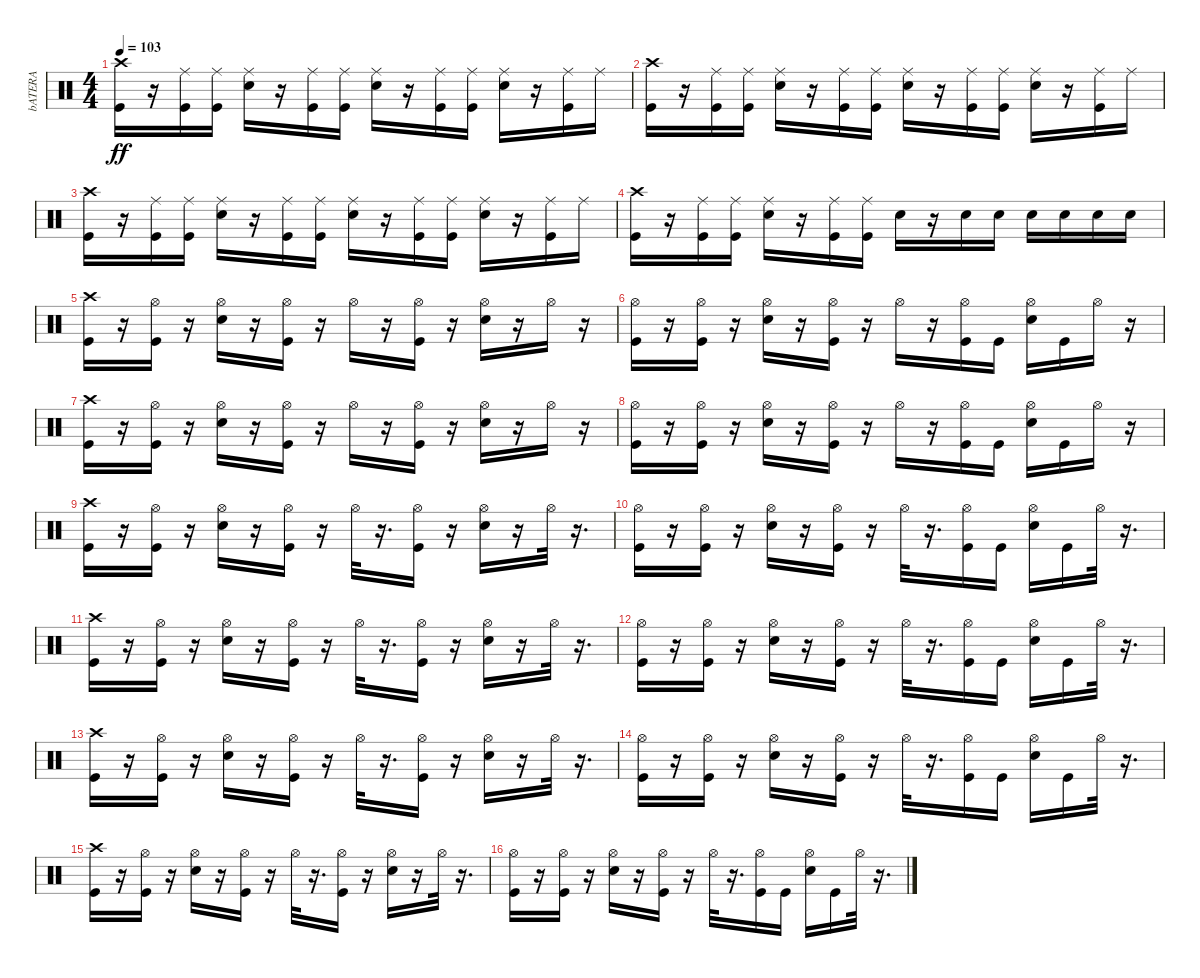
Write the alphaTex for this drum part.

\track ("bATERA" "bATERA") {instrument percussion}
\staff {score}
\articulation defaults
\ts (4 4)
\tempo 103
\clef neutral
\ks c
("Kick (hit)" "Crash high (hit)").16{dy ff} r.16 ("Kick (hit)" "Ride (middle)").16 ("Kick (hit)" "Ride (middle)").16 ("Ride (middle)" "Snare (hit) 2").16 r.16 ("Kick (hit)" "Ride (middle)").16 ("Kick (hit)" "Ride (middle)").16 ("Ride (middle)" "Snare (hit) 2").16 r.16 ("Kick (hit)" "Ride (middle)").16 ("Kick (hit)" "Ride (middle)").16 ("Ride (middle)" "Snare (hit) 2").16 r.16 ("Kick (hit)" "Ride (middle)").16 "Ride (middle)".16 |
("Crash high (hit)" "Kick (hit)").16 r.16 ("Kick (hit)" "Ride (middle)").16 ("Kick (hit)" "Ride (middle)").16 ("Ride (middle)" "Snare (hit) 2").16 r.16 ("Kick (hit)" "Ride (middle)").16 ("Kick (hit)" "Ride (middle)").16 ("Ride (middle)" "Snare (hit) 2").16 r.16 ("Kick (hit)" "Ride (middle)").16 ("Kick (hit)" "Ride (middle)").16 ("Ride (middle)" "Snare (hit) 2").16 r.16 ("Kick (hit)" "Ride (middle)").16 "Ride (middle)".16 |
("Crash high (hit)" "Kick (hit)").16 r.16 ("Kick (hit)" "Ride (middle)").16 ("Kick (hit)" "Ride (middle)").16 ("Ride (middle)" "Snare (hit) 2").16 r.16 ("Kick (hit)" "Ride (middle)").16 ("Kick (hit)" "Ride (middle)").16 ("Ride (middle)" "Snare (hit) 2").16 r.16 ("Kick (hit)" "Ride (middle)").16 ("Kick (hit)" "Ride (middle)").16 ("Ride (middle)" "Snare (hit) 2").16 r.16 ("Kick (hit)" "Ride (middle)").16 "Ride (middle)".16 |
("Crash high (hit)" "Kick (hit)").16 r.16 ("Kick (hit)" "Ride (middle)").16 ("Kick (hit)" "Ride (middle)").16 ("Ride (middle)" "Snare (hit) 2").16 r.16 ("Kick (hit)" "Ride (middle)").16 ("Kick (hit)" "Ride (middle)").16 "Snare (hit) 2".16 r.16 "Snare (hit) 2".16 "Snare (hit) 2".16 "Snare (hit) 2".16 "Snare (hit) 2".16 "Snare (hit) 2".16 "Snare (hit) 2".16 |
("Crash high (hit)" "Kick (hit)").16 r.16 ("Kick (hit)" "Hi-Hat (open)").16 r.16 ("Snare (hit) 2" "Hi-Hat (open)").16 r.16 ("Kick (hit)" "Hi-Hat (open)").16 r.16 "Hi-Hat (open)".16 r.16 ("Kick (hit)" "Hi-Hat (open)").16 r.16 ("Hi-Hat (open)" "Snare (hit) 2").16 r.16 "Hi-Hat (open)".16 r.16 |
("Kick (hit)" "Hi-Hat (open)").16 r.16 ("Kick (hit)" "Hi-Hat (open)").16 r.16 ("Snare (hit) 2" "Hi-Hat (open)").16 r.16 ("Kick (hit)" "Hi-Hat (open)").16 r.16 "Hi-Hat (open)".16 r.16 ("Kick (hit)" "Hi-Hat (open)").16 "Kick (hit)".16 ("Hi-Hat (open)" "Snare (hit) 2").16 "Kick (hit)".16 "Hi-Hat (open)".16 r.16 |
("Kick (hit)" "Crash high (hit)").16 r.16 ("Kick (hit)" "Hi-Hat (open)").16 r.16 ("Snare (hit) 2" "Hi-Hat (open)").16 r.16 ("Kick (hit)" "Hi-Hat (open)").16 r.16 "Hi-Hat (open)".16 r.16 ("Kick (hit)" "Hi-Hat (open)").16 r.16 ("Hi-Hat (open)" "Snare (hit) 2").16 r.16 "Hi-Hat (open)".16 r.16 |
("Kick (hit)" "Hi-Hat (open)").16 r.16 ("Kick (hit)" "Hi-Hat (open)").16 r.16 ("Snare (hit) 2" "Hi-Hat (open)").16 r.16 ("Kick (hit)" "Hi-Hat (open)").16 r.16 "Hi-Hat (open)".16 r.16 ("Kick (hit)" "Hi-Hat (open)").16 "Kick (hit)".16 ("Hi-Hat (open)" "Snare (hit) 2").16 "Kick (hit)".16 "Hi-Hat (open)".16 r.16 |
("Crash high (hit)" "Kick (hit)").16 r.16 ("Kick (hit)" "Hi-Hat (open)").16 r.16 ("Snare (hit) 2" "Hi-Hat (open)").16 r.16 ("Kick (hit)" "Hi-Hat (open)").16 r.16 "Hi-Hat (open)".32 r.16{d} ("Kick (hit)" "Hi-Hat (open)").16 r.16 ("Snare (hit) 2" "Hi-Hat (open)").16 r.16 "Hi-Hat (open)".32 r.16{d} |
("Kick (hit)" "Hi-Hat (open)").16 r.16 ("Kick (hit)" "Hi-Hat (open)").16 r.16 ("Snare (hit) 2" "Hi-Hat (open)").16 r.16 ("Kick (hit)" "Hi-Hat (open)").16 r.16 "Hi-Hat (open)".32 r.16{d} ("Kick (hit)" "Hi-Hat (open)").16 "Kick (hit)".16 ("Snare (hit) 2" "Hi-Hat (open)").16 "Kick (hit)".16 "Hi-Hat (open)".32 r.16{d} |
("Kick (hit)" "Crash high (hit)").16 r.16 ("Kick (hit)" "Hi-Hat (open)").16 r.16 ("Snare (hit) 2" "Hi-Hat (open)").16 r.16 ("Kick (hit)" "Hi-Hat (open)").16 r.16 "Hi-Hat (open)".32 r.16{d} ("Kick (hit)" "Hi-Hat (open)").16 r.16 ("Snare (hit) 2" "Hi-Hat (open)").16 r.16 "Hi-Hat (open)".32 r.16{d} |
("Kick (hit)" "Hi-Hat (open)").16 r.16 ("Kick (hit)" "Hi-Hat (open)").16 r.16 ("Snare (hit) 2" "Hi-Hat (open)").16 r.16 ("Kick (hit)" "Hi-Hat (open)").16 r.16 "Hi-Hat (open)".32 r.16{d} ("Kick (hit)" "Hi-Hat (open)").16 "Kick (hit)".16 ("Snare (hit) 2" "Hi-Hat (open)").16 "Kick (hit)".16 "Hi-Hat (open)".32 r.16{d} |
("Crash high (hit)" "Kick (hit)").16 r.16 ("Kick (hit)" "Hi-Hat (open)").16 r.16 ("Snare (hit) 2" "Hi-Hat (open)").16 r.16 ("Kick (hit)" "Hi-Hat (open)").16 r.16 "Hi-Hat (open)".32 r.16{d} ("Kick (hit)" "Hi-Hat (open)").16 r.16 ("Snare (hit) 2" "Hi-Hat (open)").16 r.16 "Hi-Hat (open)".32 r.16{d} |
("Kick (hit)" "Hi-Hat (open)").16 r.16 ("Kick (hit)" "Hi-Hat (open)").16 r.16 ("Snare (hit) 2" "Hi-Hat (open)").16 r.16 ("Kick (hit)" "Hi-Hat (open)").16 r.16 "Hi-Hat (open)".32 r.16{d} ("Kick (hit)" "Hi-Hat (open)").16 "Kick (hit)".16 ("Snare (hit) 2" "Hi-Hat (open)").16 "Kick (hit)".16 "Hi-Hat (open)".32 r.16{d} |
("Kick (hit)" "Crash high (hit)").16 r.16 ("Kick (hit)" "Hi-Hat (open)").16 r.16 ("Snare (hit) 2" "Hi-Hat (open)").16 r.16 ("Kick (hit)" "Hi-Hat (open)").16 r.16 "Hi-Hat (open)".32 r.16{d} ("Kick (hit)" "Hi-Hat (open)").16 r.16 ("Snare (hit) 2" "Hi-Hat (open)").16 r.16 "Hi-Hat (open)".32 r.16{d} |
("Kick (hit)" "Hi-Hat (open)").16 r.16 ("Kick (hit)" "Hi-Hat (open)").16 r.16 ("Snare (hit) 2" "Hi-Hat (open)").16 r.16 ("Kick (hit)" "Hi-Hat (open)").16 r.16 "Hi-Hat (open)".32 r.16{d} ("Kick (hit)" "Hi-Hat (open)").16 "Kick (hit)".16 ("Snare (hit) 2" "Hi-Hat (open)").16 "Kick (hit)".16 "Hi-Hat (open)".32 r.16{d}
